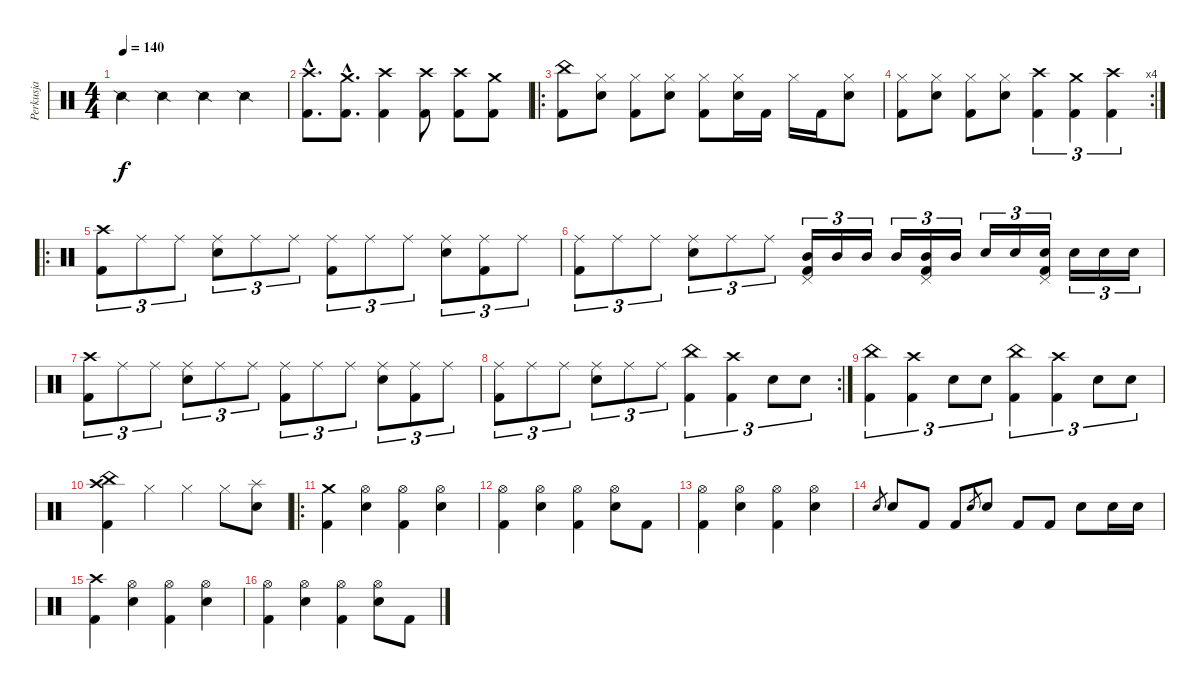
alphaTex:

\track ("Perkusja" "Perkusja") {instrument percussion}
\staff {score}
\articulation defaults
\ts (4 4)
\tempo 140
\clef neutral
\ks c "Snare (side stick) 2".4{dy f} "Snare (side stick) 2".4 "Snare (side stick) 2".4 "Snare (side stick) 2".4
|
("Kick (hit) 2"{hac} "Crash high (hit)"{hac}).8{d} ("Kick (hit) 2"{hac} "Crash medium (hit)"{hac}).8{d} ("Kick (hit) 2" "Crash high (hit)").4 ("Kick (hit) 2" "Crash high (hit)").8 ("Kick (hit) 2" "Crash high (hit)").8 ("Kick (hit) 2" "Crash medium (hit)").8 |
\ro
("Kick (hit) 2" "China (hit)").8 ("Snare (hit) 2" "Hi-Hat (closed)").8 ("Kick (hit) 2" "Hi-Hat (closed)").8 ("Snare (hit) 2" "Hi-Hat (closed)").8 ("Kick (hit) 2" "Hi-Hat (closed)").8 ("Snare (hit) 2" "Hi-Hat (closed)").16 "Kick (hit) 2".16 "Hi-Hat (closed)".16 "Kick (hit) 2".16 ("Snare (hit) 2" "Hi-Hat (closed)").8 |
\rc 4
("Kick (hit) 2" "Hi-Hat (closed)").8 ("Snare (hit) 2" "Hi-Hat (closed)").8 ("Kick (hit) 2" "Hi-Hat (closed)").8 ("Snare (hit) 2" "Hi-Hat (closed)").8 ("Kick (hit) 2" "Crash high (hit)").4{tu (3 2)} ("Kick (hit) 2" "Crash medium (hit)").4{tu (3 2)} ("Kick (hit) 2" "Crash high (hit)").4{tu (3 2)} |
\ro
("Kick (hit) 2" "Crash high (hit)").8{tu (3 2)} "Ride (middle)".8{tu (3 2)} "Ride (middle)".8{tu (3 2)} ("Snare (hit) 2" "Ride (middle)").8{tu (3 2)} "Ride (middle)".8{tu (3 2)} "Ride (middle)".8{tu (3 2)} ("Kick (hit) 2" "Ride (middle)").8{tu (3 2)} "Ride (middle)".8{tu (3 2)} "Ride (middle)".8{tu (3 2)} ("Snare (hit) 2" "Ride (middle)").8{tu (3 2)} ("Kick (hit) 2" "Ride (middle)").8{tu (3 2)} "Ride (middle)".8{tu (3 2)} |
("Kick (hit) 2" "Ride (middle)").8{tu (3 2)} "Ride (middle)".8{tu (3 2)} "Ride (middle)".8{tu (3 2)} ("Snare (hit) 2" "Ride (middle)").8{tu (3 2)} "Ride (middle)".8{tu (3 2)} "Ride (middle)".8{tu (3 2)} ("Kick (hit) 2" "Mid Tom (hit)" "Pedal Hi-Hat (hit)").16{tu (3 2)} "Mid Tom (hit)".16{tu (3 2)} "Mid Tom (hit)".16{tu (3 2)} "Mid Tom (hit)".16{tu (3 2)} ("Kick (hit) 2" "Mid Tom (hit)" "Pedal Hi-Hat (hit)").16{tu (3 2)} "Mid Tom (hit)".16{tu (3 2)} "Snare (hit) 2".16{tu (3 2)} "Snare (hit) 2".16{tu (3 2)} ("Kick (hit) 2" "Snare (hit) 2" "Pedal Hi-Hat (hit)").16{tu (3 2)} "Snare (hit) 2".16{tu (3 2)} "Snare (hit) 2".16{tu (3 2)} "Snare (hit) 2".16{tu (3 2)} |
("Kick (hit) 2" "Crash high (hit)").8{tu (3 2)} "Ride (middle)".8{tu (3 2)} "Ride (middle)".8{tu (3 2)} ("Snare (hit) 2" "Ride (middle)").8{tu (3 2)} "Ride (middle)".8{tu (3 2)} "Ride (middle)".8{tu (3 2)} ("Kick (hit) 2" "Ride (middle)").8{tu (3 2)} "Ride (middle)".8{tu (3 2)} "Ride (middle)".8{tu (3 2)} ("Snare (hit) 2" "Ride (middle)").8{tu (3 2)} ("Kick (hit) 2" "Ride (middle)").8{tu (3 2)} "Ride (middle)".8{tu (3 2)} |
\rc 2
("Kick (hit) 2" "Ride (middle)").8{tu (3 2)} "Ride (middle)".8{tu (3 2)} "Ride (middle)".8{tu (3 2)} ("Snare (hit) 2" "Ride (middle)").8{tu (3 2)} "Ride (middle)".8{tu (3 2)} "Ride (middle)".8{tu (3 2)} ("Kick (hit) 2" "China (hit)").4{tu (3 2)} ("Kick (hit) 2" "Crash high (hit)").4{tu (3 2)} "Snare (hit) 2".8{tu (3 2)} "Snare (hit) 2".8{tu (3 2)} |
("Kick (hit) 2" "China (hit)").4{tu (3 2)} ("Kick (hit) 2" "Crash high (hit)").4{tu (3 2)} "Snare (hit) 2".8{tu (3 2)} "Snare (hit) 2".8{tu (3 2)} ("Kick (hit) 2" "China (hit)").4{tu (3 2)} ("Kick (hit) 2" "Crash high (hit)").4{tu (3 2)} "Snare (hit) 2".8{tu (3 2)} "Snare (hit) 2".8{tu (3 2)} |
("Kick (hit) 2" "China (hit)" "Crash high (hit)").4 "Hi-Hat (closed)".4 "Hi-Hat (closed)".4 "Hi-Hat (closed)".8 ("Snare (hit) 2" "Splash (hit)").8 |
\ro
("Kick (hit) 2" "Crash medium (hit)").4 ("Snare (hit) 2" "Hi-Hat (open)").4 ("Kick (hit) 2" "Hi-Hat (open)").4 ("Snare (hit) 2" "Hi-Hat (open)").4 |
("Kick (hit) 2" "Hi-Hat (open)").4 ("Snare (hit) 2" "Hi-Hat (open)").4 ("Kick (hit) 2" "Hi-Hat (open)").4 ("Snare (hit) 2" "Hi-Hat (open)").8 "Kick (hit) 2".8 |
("Kick (hit) 2" "Hi-Hat (open)").4 ("Snare (hit) 2" "Hi-Hat (open)").4 ("Kick (hit) 2" "Hi-Hat (open)").4 ("Snare (hit) 2" "Hi-Hat (open)").4 |
"Snare (hit) 2".8{gr} "Snare (hit) 2".8 "Kick (hit) 2".8 "Kick (hit) 2".8 "Snare (hit) 2".8{gr} "Snare (hit) 2".8 "Kick (hit) 2".8 "Kick (hit) 2".8 "Snare (hit) 2".8 "Snare (hit) 2".16 "Snare (hit) 2".16 |
("Kick (hit) 2" "Crash high (hit)").4 ("Snare (hit) 2" "Hi-Hat (open)").4 ("Kick (hit) 2" "Hi-Hat (open)").4 ("Snare (hit) 2" "Hi-Hat (open)").4 |
("Kick (hit) 2" "Hi-Hat (open)").4 ("Snare (hit) 2" "Hi-Hat (open)").4 ("Kick (hit) 2" "Hi-Hat (open)").4 ("Snare (hit) 2" "Hi-Hat (open)").8 "Kick (hit) 2".8
